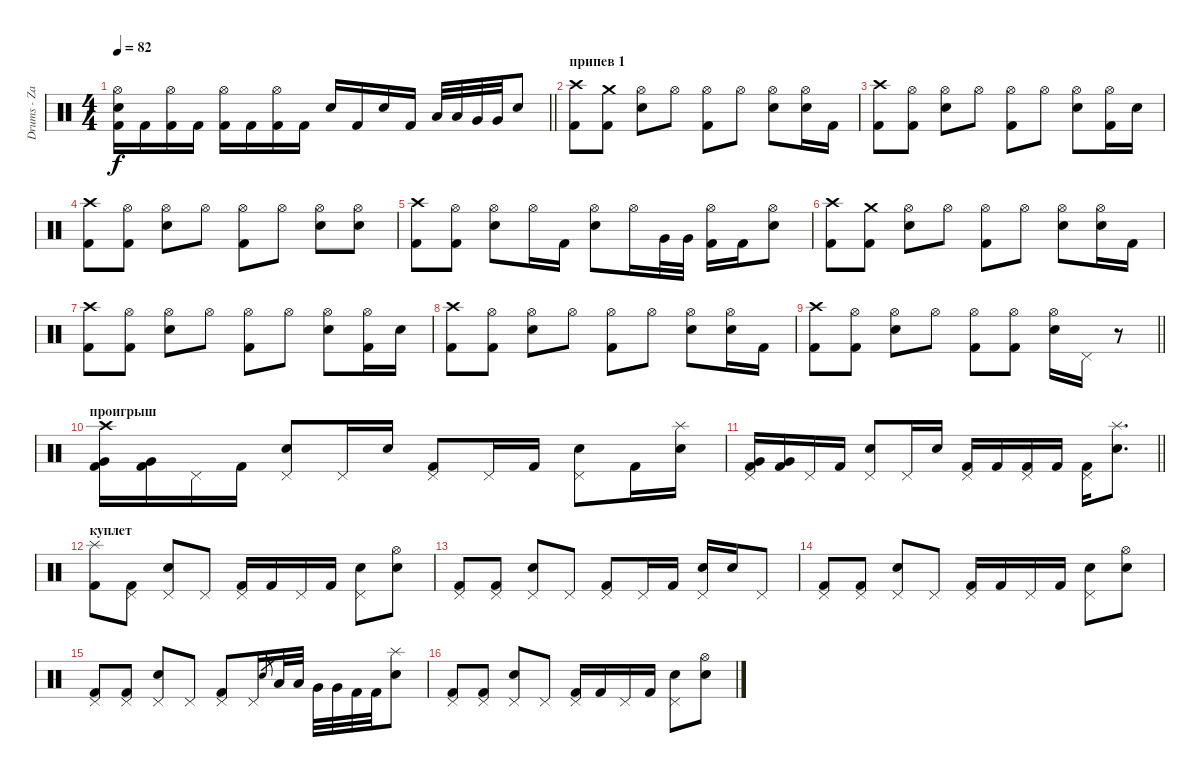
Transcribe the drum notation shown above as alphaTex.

\track ("Drums - Zac Farro" "Drums - Za") {instrument percussion}
\staff {score}
\articulation defaults
\ts (4 4)
\tempo 82
\clef neutral
\barLineRight lightlight
\ks c
("Hi-Hat (open)" "Kick (hit) 2" "Snare (hit) 2").16{dy f} "Kick (hit) 2".16 ("Hi-Hat (open)" "Kick (hit) 2").16 "Kick (hit) 2".16 ("Hi-Hat (open)" "Kick (hit) 2").16 "Kick (hit) 2".16 ("Hi-Hat (open)" "Kick (hit) 2").16 "Kick (hit) 2".16 "Snare (hit) 2".16 "Kick (hit) 2".16 "Snare (hit) 2".16 "Kick (hit) 2".16 "Low Tom (hit)".32 "Low Tom (hit)".32 "Very Low Tom (hit)".32 "Very Low Tom (hit)".32 "Snare (hit) 2".8 |
\section ("" "припев 1")
("Crash high (hit)" "Kick (hit) 2").8 ("Crash medium (hit)" "Kick (hit) 2").8 ("Hi-Hat (open)" "Snare (hit) 2").8 "Hi-Hat (open)".8 ("Hi-Hat (open)" "Kick (hit) 2").8 "Hi-Hat (open)".8 ("Hi-Hat (open)" "Snare (hit) 2").8 ("Hi-Hat (open)" "Snare (hit) 2").16 "Kick (hit) 2".16 |
("Crash high (hit)" "Kick (hit) 2").8 ("Hi-Hat (open)" "Kick (hit) 2").8 ("Hi-Hat (open)" "Snare (hit) 2").8 "Hi-Hat (open)".8 ("Hi-Hat (open)" "Kick (hit) 2").8 "Hi-Hat (open)".8 ("Hi-Hat (open)" "Snare (hit) 2").8 ("Hi-Hat (open)" "Kick (hit) 2").16 "Snare (hit) 2".16 |
("Crash high (hit)" "Kick (hit) 2").8 ("Hi-Hat (open)" "Kick (hit) 2").8 ("Hi-Hat (open)" "Snare (hit) 2").8 "Hi-Hat (open)".8 ("Hi-Hat (open)" "Kick (hit) 2").8 "Hi-Hat (open)".8 ("Hi-Hat (open)" "Snare (hit) 2").8 ("Hi-Hat (open)" "Snare (hit) 2").8 |
("Crash high (hit)" "Kick (hit) 2").8 ("Hi-Hat (open)" "Kick (hit) 2").8 ("Hi-Hat (open)" "Snare (hit) 2").8 "Hi-Hat (open)".16 "Kick (hit) 2".16 ("Hi-Hat (open)" "Snare (hit) 2").8 "Hi-Hat (open)".16 "Very Low Tom (hit)".32 "Very Low Tom (hit)".32 ("Hi-Hat (open)" "Kick (hit) 2").16 "Kick (hit) 2".16 ("Hi-Hat (open)" "Snare (hit) 2").8 |
("Crash high (hit)" "Kick (hit) 2").8 ("Crash medium (hit)" "Kick (hit) 2").8 ("Hi-Hat (open)" "Snare (hit) 2").8 "Hi-Hat (open)".8 ("Hi-Hat (open)" "Kick (hit) 2").8 "Hi-Hat (open)".8 ("Hi-Hat (open)" "Snare (hit) 2").8 ("Hi-Hat (open)" "Snare (hit) 2").16 "Kick (hit) 2".16 |
("Crash high (hit)" "Kick (hit) 2").8 ("Hi-Hat (open)" "Kick (hit) 2").8 ("Hi-Hat (open)" "Snare (hit) 2").8 "Hi-Hat (open)".8 ("Hi-Hat (open)" "Kick (hit) 2").8 "Hi-Hat (open)".8 ("Hi-Hat (open)" "Snare (hit) 2").8 ("Hi-Hat (open)" "Kick (hit) 2").16 "Snare (hit) 2".16 |
("Crash high (hit)" "Kick (hit) 2").8 ("Hi-Hat (open)" "Kick (hit) 2").8 ("Hi-Hat (open)" "Snare (hit) 2").8 "Hi-Hat (open)".8 ("Hi-Hat (open)" "Kick (hit) 2").8 "Hi-Hat (open)".8 ("Hi-Hat (open)" "Snare (hit) 2").8 ("Hi-Hat (open)" "Snare (hit) 2").16 "Kick (hit) 2".16 |
\barLineRight lightlight
("Crash high (hit)" "Kick (hit) 2").8 ("Hi-Hat (open)" "Kick (hit) 2").8 ("Hi-Hat (open)" "Snare (hit) 2").8 "Hi-Hat (open)".8 ("Hi-Hat (open)" "Kick (hit) 2").8 ("Hi-Hat (open)" "Kick (hit) 2").8 ("Hi-Hat (open)" "Snare (hit) 2").16 "Pedal Hi-Hat (hit)".16 r.8 |
\section ("" "проигрыш")
("Crash high (hit)" "Kick (hit) 2" "Very Low Tom (hit)").16 ("Kick (hit) 2" "Very Low Tom (hit)").16 "Pedal Hi-Hat (hit)".16 "Kick (hit) 2".16 ("Pedal Hi-Hat (hit)" "Snare (hit) 2").8 "Pedal Hi-Hat (hit)".16 "Snare (hit) 2".16 ("Pedal Hi-Hat (hit)" "Kick (hit) 2").8 "Pedal Hi-Hat (hit)".16 "Kick (hit) 2".16 ("Pedal Hi-Hat (hit)" "Snare (hit) 2").8 "Kick (hit) 2".16 ("Splash (hit)" "Snare (hit) 2").16 |
\barLineRight lightlight
("Pedal Hi-Hat (hit)" "Kick (hit) 2" "Very Low Tom (hit)").16 ("Kick (hit) 2" "Very Low Tom (hit)").16 "Pedal Hi-Hat (hit)".16 "Kick (hit) 2".16 ("Pedal Hi-Hat (hit)" "Snare (hit) 2").8 "Pedal Hi-Hat (hit)".16 "Snare (hit) 2".16 ("Pedal Hi-Hat (hit)" "Kick (hit) 2").16 "Kick (hit) 2".16 ("Pedal Hi-Hat (hit)" "Kick (hit) 2").16 "Kick (hit) 2".16 ("Pedal Hi-Hat (hit)" "Kick (hit) 2").16 ("Splash (hit)" "Snare (hit) 2").8{d} |
\section ("" "куплет")
("Splash (hit)" "Kick (hit) 2").8 ("Pedal Hi-Hat (hit)" "Kick (hit) 2").8 ("Pedal Hi-Hat (hit)" "Snare (hit) 2").8 "Pedal Hi-Hat (hit)".8 ("Pedal Hi-Hat (hit)" "Kick (hit) 2").16 "Kick (hit) 2".16 "Pedal Hi-Hat (hit)".16 "Kick (hit) 2".16 ("Pedal Hi-Hat (hit)" "Snare (hit) 2").8 ("Hi-Hat (open)" "Snare (hit) 2").8 |
("Pedal Hi-Hat (hit)" "Kick (hit) 2").8 ("Pedal Hi-Hat (hit)" "Kick (hit) 2").8 ("Pedal Hi-Hat (hit)" "Snare (hit) 2").8 "Pedal Hi-Hat (hit)".8 ("Pedal Hi-Hat (hit)" "Kick (hit) 2").8 "Pedal Hi-Hat (hit)".16 "Kick (hit) 2".16 ("Pedal Hi-Hat (hit)" "Snare (hit) 2").16 "Snare (hit) 2".16 "Pedal Hi-Hat (hit)".8 |
("Pedal Hi-Hat (hit)" "Kick (hit) 2").8 ("Pedal Hi-Hat (hit)" "Kick (hit) 2").8 ("Pedal Hi-Hat (hit)" "Snare (hit) 2").8 "Pedal Hi-Hat (hit)".8 ("Pedal Hi-Hat (hit)" "Kick (hit) 2").16 "Kick (hit) 2".16 "Pedal Hi-Hat (hit)".16 "Kick (hit) 2".16 ("Pedal Hi-Hat (hit)" "Snare (hit) 2").8 ("Hi-Hat (open)" "Snare (hit) 2").8 |
("Pedal Hi-Hat (hit)" "Kick (hit) 2").8 ("Pedal Hi-Hat (hit)" "Kick (hit) 2").8 ("Pedal Hi-Hat (hit)" "Snare (hit) 2").8 "Pedal Hi-Hat (hit)".8 ("Pedal Hi-Hat (hit)" "Kick (hit) 2").8 "Pedal Hi-Hat (hit)".16 "Snare (hit) 2".8{gr} "Low Tom (hit)".32 "Low Tom (hit)".32 "Very Low Tom (hit)".32 "Very Low Tom (hit)".32 "Kick (hit) 2".32 "Kick (hit) 2".32 ("Splash (hit)" "Snare (hit) 2").8 |
("Pedal Hi-Hat (hit)" "Kick (hit) 2").8 ("Pedal Hi-Hat (hit)" "Kick (hit) 2").8 ("Pedal Hi-Hat (hit)" "Snare (hit) 2").8 "Pedal Hi-Hat (hit)".8 ("Pedal Hi-Hat (hit)" "Kick (hit) 2").16 "Kick (hit) 2".16 "Pedal Hi-Hat (hit)".16 "Kick (hit) 2".16 ("Pedal Hi-Hat (hit)" "Snare (hit) 2").8 ("Hi-Hat (open)" "Snare (hit) 2").8
